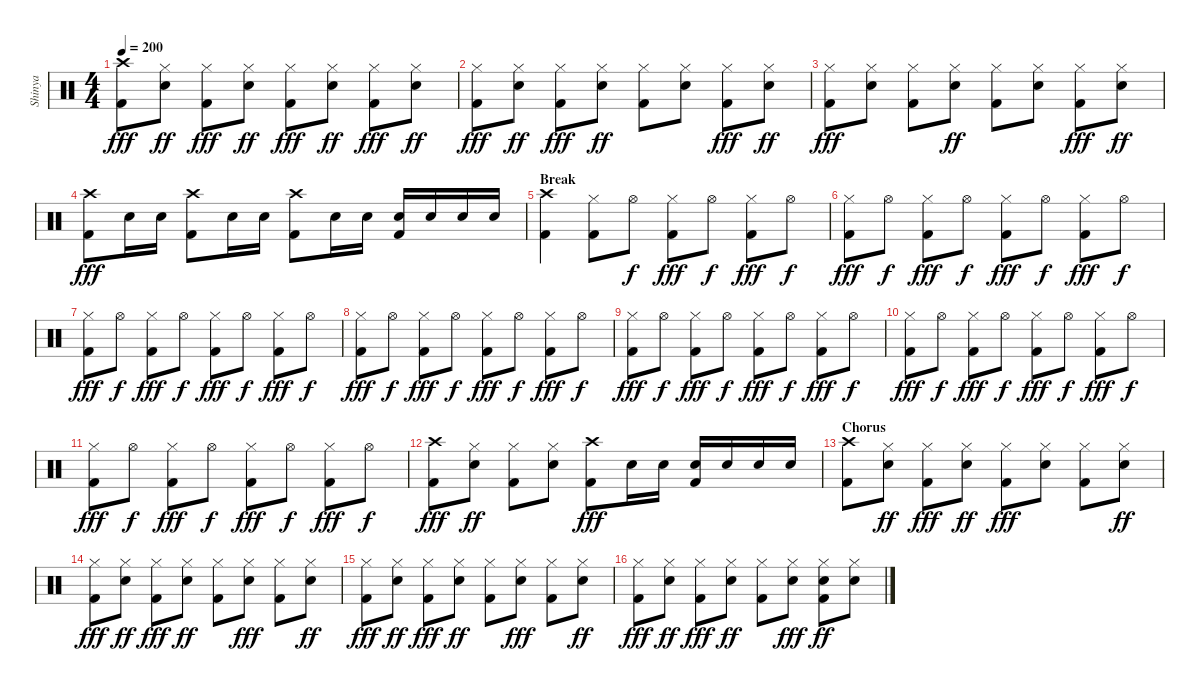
\track ("Shinya" "Shinya") {instrument percussion}
\staff {score}
\articulation defaults
\ts (4 4)
\tempo 200
\clef neutral
\ks c
("Crash high (hit)" "Kick (hit) 2").8{dy fff} ("Snare (hit) 2" "Hi-Hat (closed)").8{dy ff} ("Hi-Hat (closed)" "Kick (hit) 2").8{dy fff} ("Snare (hit) 2" "Hi-Hat (closed)").8{dy ff} ("Hi-Hat (closed)" "Kick (hit) 2").8{dy fff} ("Snare (hit) 2" "Hi-Hat (closed)").8{dy ff} ("Hi-Hat (closed)" "Kick (hit) 2").8{dy fff} ("Snare (hit) 2" "Hi-Hat (closed)").8{dy ff} |
("Hi-Hat (closed)" "Kick (hit) 2").8{dy fff} ("Snare (hit) 2" "Hi-Hat (closed)").8{dy ff} ("Hi-Hat (closed)" "Kick (hit) 2").8{dy fff} ("Snare (hit) 2" "Hi-Hat (closed)").8{dy ff} ("Kick (hit) 2" "Hi-Hat (closed)").8 ("Snare (hit) 2" "Hi-Hat (closed)").8 ("Hi-Hat (closed)" "Kick (hit) 2").8{dy fff} ("Snare (hit) 2" "Hi-Hat (closed)").8{dy ff} |
("Hi-Hat (closed)" "Kick (hit) 2").8{dy fff} ("Hi-Hat (closed)" "Snare (hit) 2").8 ("Hi-Hat (closed)" "Kick (hit) 2").8 ("Snare (hit) 2" "Hi-Hat (closed)").8{dy ff} ("Kick (hit) 2" "Hi-Hat (closed)").8 ("Snare (hit) 2" "Hi-Hat (closed)").8 ("Hi-Hat (closed)" "Kick (hit) 2").8{dy fff} ("Snare (hit) 2" "Hi-Hat (closed)").8{dy ff} |
("Crash high (hit)" "Kick (hit) 2").8{dy fff} "Snare (hit) 2".16 "Snare (hit) 2".16 ("Kick (hit) 2" "Crash high (hit)").8 "Snare (hit) 2".16 "Snare (hit) 2".16 ("Crash high (hit)" "Kick (hit) 2").8 "Snare (hit) 2".16 "Snare (hit) 2".16 ("Snare (hit) 2" "Kick (hit) 2").16 "Snare (hit) 2".16 "Snare (hit) 2".16 "Snare (hit) 2".16 |
\section ("" "Break")
("Kick (hit) 2" "Crash high (hit)").4 ("Hi-Hat (closed)" "Kick (hit) 2").8 "Hi-Hat (open)".8{dy f} ("Hi-Hat (closed)" "Kick (hit) 2").8{dy fff} "Hi-Hat (open)".8{dy f} ("Hi-Hat (closed)" "Kick (hit) 2").8{dy fff} "Hi-Hat (open)".8{dy f} |
("Hi-Hat (closed)" "Kick (hit) 2").8{dy fff} "Hi-Hat (open)".8{dy f} ("Hi-Hat (closed)" "Kick (hit) 2").8{dy fff} "Hi-Hat (open)".8{dy f} ("Hi-Hat (closed)" "Kick (hit) 2").8{dy fff} "Hi-Hat (open)".8{dy f} ("Hi-Hat (closed)" "Kick (hit) 2").8{dy fff} "Hi-Hat (open)".8{dy f} |
("Hi-Hat (closed)" "Kick (hit) 2").8{dy fff} "Hi-Hat (open)".8{dy f} ("Hi-Hat (closed)" "Kick (hit) 2").8{dy fff} "Hi-Hat (open)".8{dy f} ("Hi-Hat (closed)" "Kick (hit) 2").8{dy fff} "Hi-Hat (open)".8{dy f} ("Hi-Hat (closed)" "Kick (hit) 2").8{dy fff} "Hi-Hat (open)".8{dy f} |
("Hi-Hat (closed)" "Kick (hit) 2").8{dy fff} "Hi-Hat (open)".8{dy f} ("Hi-Hat (closed)" "Kick (hit) 2").8{dy fff} "Hi-Hat (open)".8{dy f} ("Hi-Hat (closed)" "Kick (hit) 2").8{dy fff} "Hi-Hat (open)".8{dy f} ("Hi-Hat (closed)" "Kick (hit) 2").8{dy fff} "Hi-Hat (open)".8{dy f} |
("Hi-Hat (closed)" "Kick (hit) 2").8{dy fff} "Hi-Hat (open)".8{dy f} ("Hi-Hat (closed)" "Kick (hit) 2").8{dy fff} "Hi-Hat (open)".8{dy f} ("Hi-Hat (closed)" "Kick (hit) 2").8{dy fff} "Hi-Hat (open)".8{dy f} ("Hi-Hat (closed)" "Kick (hit) 2").8{dy fff} "Hi-Hat (open)".8{dy f} |
("Hi-Hat (closed)" "Kick (hit) 2").8{dy fff} "Hi-Hat (open)".8{dy f} ("Hi-Hat (closed)" "Kick (hit) 2").8{dy fff} "Hi-Hat (open)".8{dy f} ("Hi-Hat (closed)" "Kick (hit) 2").8{dy fff} "Hi-Hat (open)".8{dy f} ("Hi-Hat (closed)" "Kick (hit) 2").8{dy fff} "Hi-Hat (open)".8{dy f} |
("Hi-Hat (closed)" "Kick (hit) 2").8{dy fff} "Hi-Hat (open)".8{dy f} ("Hi-Hat (closed)" "Kick (hit) 2").8{dy fff} "Hi-Hat (open)".8{dy f} ("Hi-Hat (closed)" "Kick (hit) 2").8{dy fff} "Hi-Hat (open)".8{dy f} ("Hi-Hat (closed)" "Kick (hit) 2").8{dy fff} "Hi-Hat (open)".8{dy f} |
("Crash high (hit)" "Kick (hit) 2").8{dy fff} ("Snare (hit) 2" "Hi-Hat (closed)").8{dy ff} ("Kick (hit) 2" "Hi-Hat (closed)").8 ("Snare (hit) 2" "Hi-Hat (closed)").8 ("Kick (hit) 2" "Crash high (hit)").8{dy fff} "Snare (hit) 2".16 "Snare (hit) 2".16 ("Snare (hit) 2" "Kick (hit) 2").16 "Snare (hit) 2".16 "Snare (hit) 2".16 "Snare (hit) 2".16 |
\section ("" "Chorus")
("Crash high (hit)" "Kick (hit) 2").8 ("Snare (hit) 2" "Hi-Hat (closed)").8{dy ff} ("Hi-Hat (closed)" "Kick (hit) 2").8{dy fff} ("Snare (hit) 2" "Hi-Hat (closed)").8{dy ff} ("Hi-Hat (closed)" "Kick (hit) 2").8{dy fff} ("Hi-Hat (closed)" "Snare (hit) 2").8 ("Hi-Hat (closed)" "Kick (hit) 2").8 ("Snare (hit) 2" "Hi-Hat (closed)").8{dy ff} |
("Hi-Hat (closed)" "Kick (hit) 2").8{dy fff} ("Snare (hit) 2" "Hi-Hat (closed)").8{dy ff} ("Hi-Hat (closed)" "Kick (hit) 2").8{dy fff} ("Snare (hit) 2" "Hi-Hat (closed)").8{dy ff} ("Kick (hit) 2" "Hi-Hat (closed)").8 ("Hi-Hat (closed)" "Snare (hit) 2").8{dy fff} ("Hi-Hat (closed)" "Kick (hit) 2").8 ("Snare (hit) 2" "Hi-Hat (closed)").8{dy ff} |
("Hi-Hat (closed)" "Kick (hit) 2").8{dy fff} ("Snare (hit) 2" "Hi-Hat (closed)").8{dy ff} ("Hi-Hat (closed)" "Kick (hit) 2").8{dy fff} ("Snare (hit) 2" "Hi-Hat (closed)").8{dy ff} ("Kick (hit) 2" "Hi-Hat (closed)").8 ("Hi-Hat (closed)" "Snare (hit) 2").8{dy fff} ("Hi-Hat (closed)" "Kick (hit) 2").8 ("Snare (hit) 2" "Hi-Hat (closed)").8{dy ff} |
("Hi-Hat (closed)" "Kick (hit) 2").8{dy fff} ("Snare (hit) 2" "Hi-Hat (closed)").8{dy ff} ("Hi-Hat (closed)" "Kick (hit) 2").8{dy fff} ("Snare (hit) 2" "Hi-Hat (closed)").8{dy ff} ("Kick (hit) 2" "Hi-Hat (closed)").8 ("Hi-Hat (closed)" "Snare (hit) 2").8{dy fff} ("Kick (hit) 2" "Snare (hit) 2" "Hi-Hat (closed)").8{dy ff} ("Snare (hit) 2" "Hi-Hat (closed)").8
